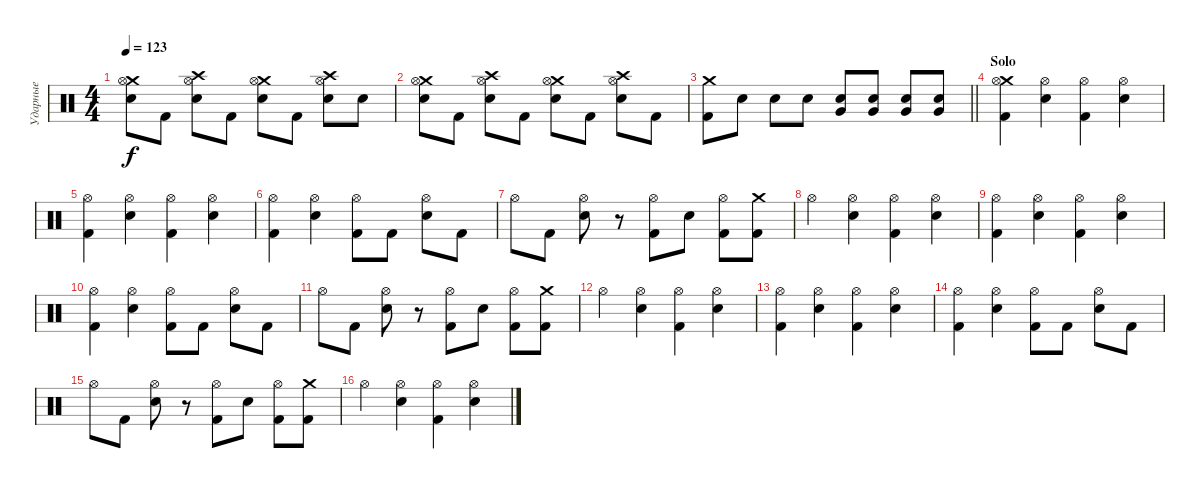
\track ("Ударные" "Ударные") {instrument percussion}
\staff {score}
\articulation defaults
\ts (4 4)
\tempo 123
\clef neutral
\ks c
("Crash medium (hit)" "Snare (hit) 2" "Hi-Hat (open)").8{dy f} "Kick (hit) 2".8 ("Crash high (hit)" "Snare (hit) 2" "Hi-Hat (open)").8 "Kick (hit) 2".8 ("Crash medium (hit)" "Snare (hit) 2" "Hi-Hat (open)").8 "Kick (hit) 2".8 ("Crash high (hit)" "Snare (hit) 2" "Hi-Hat (open)").8 "Snare (hit) 2".8 |
("Crash medium (hit)" "Snare (hit) 2" "Hi-Hat (open)").8 "Kick (hit) 2".8 ("Crash high (hit)" "Snare (hit) 2" "Hi-Hat (open)").8 "Kick (hit) 2".8 ("Crash medium (hit)" "Snare (hit) 2" "Hi-Hat (open)").8 "Kick (hit) 2".8 ("Crash high (hit)" "Snare (hit) 2" "Hi-Hat (open)").8 "Kick (hit) 2".8 |
\barLineRight lightlight
("Crash medium (hit)" "Kick (hit) 2").8 "Snare (hit) 2".8 "Snare (hit) 2".8 "Snare (hit) 2".8 ("Snare (hit) 2" "Very Low Tom (hit)").8 ("Snare (hit) 2" "Very Low Tom (hit)").8 ("Snare (hit) 2" "Very Low Tom (hit)").8 ("Snare (hit) 2" "Very Low Tom (hit)").8 |
\section ("" "Solo")
("Crash medium (hit)" "Kick (hit) 2" "Hi-Hat (open)").4 ("Electric Snare (hit)" "Hi-Hat (open)").4 ("Kick (hit) 2" "Hi-Hat (open)").4 ("Electric Snare (hit)" "Hi-Hat (open)").4 |
("Kick (hit) 2" "Hi-Hat (open)").4 ("Electric Snare (hit)" "Hi-Hat (open)").4 ("Kick (hit) 2" "Hi-Hat (open)").4 ("Electric Snare (hit)" "Hi-Hat (open)").4 |
("Kick (hit) 2" "Hi-Hat (open)").4 ("Electric Snare (hit)" "Hi-Hat (open)").4 ("Kick (hit) 2" "Hi-Hat (open)").8 "Kick (hit) 2".8 ("Electric Snare (hit)" "Hi-Hat (open)").8 "Kick (hit) 2".8 |
"Hi-Hat (open)".8 "Kick (hit) 2".8 ("Electric Snare (hit)" "Hi-Hat (open)").8 r.8 ("Kick (hit) 2" "Hi-Hat (open)").8 "Electric Snare (hit)".8 ("Kick (hit) 2" "Hi-Hat (open)").8 ("Crash medium (hit)" "Kick (hit) 2").8 |
"Hi-Hat (open)".4 ("Electric Snare (hit)" "Hi-Hat (open)").4 ("Kick (hit) 2" "Hi-Hat (open)").4 ("Electric Snare (hit)" "Hi-Hat (open)").4 |
("Kick (hit) 2" "Hi-Hat (open)").4 ("Electric Snare (hit)" "Hi-Hat (open)").4 ("Kick (hit) 2" "Hi-Hat (open)").4 ("Electric Snare (hit)" "Hi-Hat (open)").4 |
("Kick (hit) 2" "Hi-Hat (open)").4 ("Electric Snare (hit)" "Hi-Hat (open)").4 ("Kick (hit) 2" "Hi-Hat (open)").8 "Kick (hit) 2".8 ("Electric Snare (hit)" "Hi-Hat (open)").8 "Kick (hit) 2".8 |
"Hi-Hat (open)".8 "Kick (hit) 2".8 ("Electric Snare (hit)" "Hi-Hat (open)").8 r.8 ("Kick (hit) 2" "Hi-Hat (open)").8 "Electric Snare (hit)".8 ("Kick (hit) 2" "Hi-Hat (open)").8 ("Crash medium (hit)" "Kick (hit) 2").8 |
"Hi-Hat (open)".4 ("Electric Snare (hit)" "Hi-Hat (open)").4 ("Kick (hit) 2" "Hi-Hat (open)").4 ("Electric Snare (hit)" "Hi-Hat (open)").4 |
("Kick (hit) 2" "Hi-Hat (open)").4 ("Electric Snare (hit)" "Hi-Hat (open)").4 ("Kick (hit) 2" "Hi-Hat (open)").4 ("Electric Snare (hit)" "Hi-Hat (open)").4 |
("Kick (hit) 2" "Hi-Hat (open)").4 ("Electric Snare (hit)" "Hi-Hat (open)").4 ("Kick (hit) 2" "Hi-Hat (open)").8 "Kick (hit) 2".8 ("Electric Snare (hit)" "Hi-Hat (open)").8 "Kick (hit) 2".8 |
"Hi-Hat (open)".8 "Kick (hit) 2".8 ("Electric Snare (hit)" "Hi-Hat (open)").8 r.8 ("Kick (hit) 2" "Hi-Hat (open)").8 "Electric Snare (hit)".8 ("Kick (hit) 2" "Hi-Hat (open)").8 ("Crash medium (hit)" "Kick (hit) 2").8 |
"Hi-Hat (open)".4 ("Electric Snare (hit)" "Hi-Hat (open)").4 ("Kick (hit) 2" "Hi-Hat (open)").4 ("Electric Snare (hit)" "Hi-Hat (open)").4
